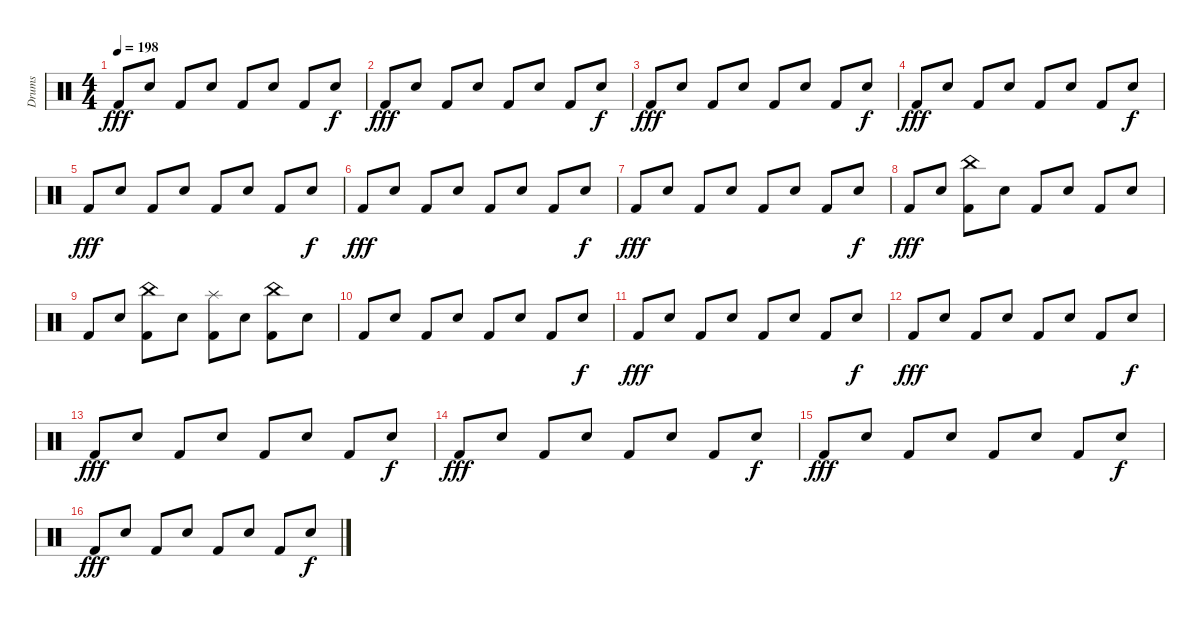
\track ("Drums" "Drums") {instrument percussion}
\staff {score}
\articulation defaults
\ts (4 4)
\tempo 198
\clef neutral
\ks c "Kick (hit) 2".8{dy fff} "Snare (hit) 2".8 "Kick (hit) 2".8 "Snare (hit) 2".8 "Kick (hit) 2".8 "Snare (hit) 2".8 "Kick (hit) 2".8 "Snare (hit) 2".8{dy f}
|
"Kick (hit) 2".8{dy fff} "Snare (hit) 2".8 "Kick (hit) 2".8 "Snare (hit) 2".8 "Kick (hit) 2".8 "Snare (hit) 2".8 "Kick (hit) 2".8 "Snare (hit) 2".8{dy f} |
"Kick (hit) 2".8{dy fff} "Snare (hit) 2".8 "Kick (hit) 2".8 "Snare (hit) 2".8 "Kick (hit) 2".8 "Snare (hit) 2".8 "Kick (hit) 2".8 "Snare (hit) 2".8{dy f} |
"Kick (hit) 2".8{dy fff} "Snare (hit) 2".8 "Kick (hit) 2".8 "Snare (hit) 2".8 "Kick (hit) 2".8 "Snare (hit) 2".8 "Kick (hit) 2".8 "Snare (hit) 2".8{dy f} |
"Kick (hit) 2".8{dy fff} "Snare (hit) 2".8 "Kick (hit) 2".8 "Snare (hit) 2".8 "Kick (hit) 2".8 "Snare (hit) 2".8 "Kick (hit) 2".8 "Snare (hit) 2".8{dy f} |
"Kick (hit) 2".8{dy fff} "Snare (hit) 2".8 "Kick (hit) 2".8 "Snare (hit) 2".8 "Kick (hit) 2".8 "Snare (hit) 2".8 "Kick (hit) 2".8 "Snare (hit) 2".8{dy f} |
"Kick (hit) 2".8{dy fff} "Snare (hit) 2".8 "Kick (hit) 2".8 "Snare (hit) 2".8 "Kick (hit) 2".8 "Snare (hit) 2".8 "Kick (hit) 2".8 "Snare (hit) 2".8{dy f} |
"Kick (hit) 2".8{dy fff} "Snare (hit) 2".8 ("China (hit)" "Kick (hit) 2").8 "Snare (hit) 2".8 "Kick (hit) 2".8 "Snare (hit) 2".8 "Kick (hit) 2".8 "Snare (hit) 2".8 |
"Kick (hit) 2".8 "Snare (hit) 2".8 ("China (hit)" "Kick (hit) 2").8 "Snare (hit) 2".8 ("Splash (hit)" "Kick (hit) 2").8 "Snare (hit) 2".8 ("China (hit)" "Kick (hit) 2").8 "Snare (hit) 2".8 |
"Kick (hit) 2".8 "Snare (hit) 2".8 "Kick (hit) 2".8 "Snare (hit) 2".8 "Kick (hit) 2".8 "Snare (hit) 2".8 "Kick (hit) 2".8 "Snare (hit) 2".8{dy f} |
"Kick (hit) 2".8{dy fff} "Snare (hit) 2".8 "Kick (hit) 2".8 "Snare (hit) 2".8 "Kick (hit) 2".8 "Snare (hit) 2".8 "Kick (hit) 2".8 "Snare (hit) 2".8{dy f} |
"Kick (hit) 2".8{dy fff} "Snare (hit) 2".8 "Kick (hit) 2".8 "Snare (hit) 2".8 "Kick (hit) 2".8 "Snare (hit) 2".8 "Kick (hit) 2".8 "Snare (hit) 2".8{dy f} |
"Kick (hit) 2".8{dy fff} "Snare (hit) 2".8 "Kick (hit) 2".8 "Snare (hit) 2".8 "Kick (hit) 2".8 "Snare (hit) 2".8 "Kick (hit) 2".8 "Snare (hit) 2".8{dy f} |
"Kick (hit) 2".8{dy fff} "Snare (hit) 2".8 "Kick (hit) 2".8 "Snare (hit) 2".8 "Kick (hit) 2".8 "Snare (hit) 2".8 "Kick (hit) 2".8 "Snare (hit) 2".8{dy f} |
"Kick (hit) 2".8{dy fff} "Snare (hit) 2".8 "Kick (hit) 2".8 "Snare (hit) 2".8 "Kick (hit) 2".8 "Snare (hit) 2".8 "Kick (hit) 2".8 "Snare (hit) 2".8{dy f} |
"Kick (hit) 2".8{dy fff} "Snare (hit) 2".8 "Kick (hit) 2".8 "Snare (hit) 2".8 "Kick (hit) 2".8 "Snare (hit) 2".8 "Kick (hit) 2".8 "Snare (hit) 2".8{dy f}
